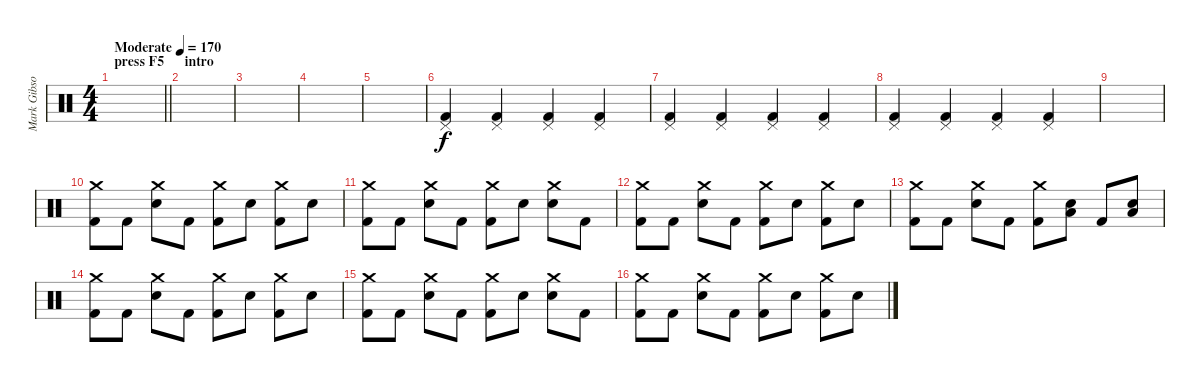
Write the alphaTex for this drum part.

\track ("Mark Gibson" "Mark Gibso") {instrument percussion}
\staff {score}
\articulation defaults
\ts (4 4)
\section ("" "press F5")
\tempo (170 "Moderate")
\clef neutral
\barLineRight lightlight
\ks c
|
\section ("" "intro")
|
|
|
|
("Pedal Hi-Hat (hit)" "Kick (hit) 2").4 ("Pedal Hi-Hat (hit)" "Kick (hit) 2").4 ("Pedal Hi-Hat (hit)" "Kick (hit) 2").4 ("Pedal Hi-Hat (hit)" "Kick (hit) 2").4 |
("Pedal Hi-Hat (hit)" "Kick (hit) 2").4 ("Pedal Hi-Hat (hit)" "Kick (hit) 2").4 ("Pedal Hi-Hat (hit)" "Kick (hit) 2").4 ("Pedal Hi-Hat (hit)" "Kick (hit) 2").4 |
("Pedal Hi-Hat (hit)" "Kick (hit) 2").4 ("Pedal Hi-Hat (hit)" "Kick (hit) 2").4 ("Pedal Hi-Hat (hit)" "Kick (hit) 2").4 ("Pedal Hi-Hat (hit)" "Kick (hit) 2").4 |
|
("Crash medium (hit)" "Kick (hit) 2").8 "Kick (hit) 2".8 ("Crash medium (hit)" "Electric Snare (hit)").8 "Kick (hit) 2".8 ("Crash medium (hit)" "Kick (hit) 2").8 "Electric Snare (hit)".8 ("Crash medium (hit)" "Kick (hit) 2").8 "Electric Snare (hit)".8 |
("Crash medium (hit)" "Kick (hit) 2").8 "Kick (hit) 2".8 ("Crash medium (hit)" "Electric Snare (hit)").8 "Kick (hit) 2".8 ("Crash medium (hit)" "Kick (hit) 2").8 "Electric Snare (hit)".8 ("Crash medium (hit)" "Electric Snare (hit)").8 "Kick (hit) 2".8 |
("Crash medium (hit)" "Kick (hit) 2").8 "Kick (hit) 2".8 ("Crash medium (hit)" "Electric Snare (hit)").8 "Kick (hit) 2".8 ("Crash medium (hit)" "Kick (hit) 2").8 "Electric Snare (hit)".8 ("Crash medium (hit)" "Kick (hit) 2").8 "Electric Snare (hit)".8 |
("Crash medium (hit)" "Kick (hit) 2").8 "Kick (hit) 2".8 ("Crash medium (hit)" "Electric Snare (hit)").8 "Kick (hit) 2".8 ("Crash medium (hit)" "Kick (hit) 2").8 ("Low Floor Tom (hit)" "Electric Snare (hit)").8 "Kick (hit) 2".8 ("Low Floor Tom (hit)" "Electric Snare (hit)").8 |
("Crash medium (hit)" "Kick (hit) 2").8 "Kick (hit) 2".8 ("Crash medium (hit)" "Electric Snare (hit)").8 "Kick (hit) 2".8 ("Crash medium (hit)" "Kick (hit) 2").8 "Electric Snare (hit)".8 ("Crash medium (hit)" "Kick (hit) 2").8 "Electric Snare (hit)".8 |
("Crash medium (hit)" "Kick (hit) 2").8 "Kick (hit) 2".8 ("Crash medium (hit)" "Electric Snare (hit)").8 "Kick (hit) 2".8 ("Crash medium (hit)" "Kick (hit) 2").8 "Electric Snare (hit)".8 ("Crash medium (hit)" "Electric Snare (hit)").8 "Kick (hit) 2".8 |
("Crash medium (hit)" "Kick (hit) 2").8 "Kick (hit) 2".8 ("Crash medium (hit)" "Electric Snare (hit)").8 "Kick (hit) 2".8 ("Crash medium (hit)" "Kick (hit) 2").8 "Electric Snare (hit)".8 ("Crash medium (hit)" "Kick (hit) 2").8 "Electric Snare (hit)".8
